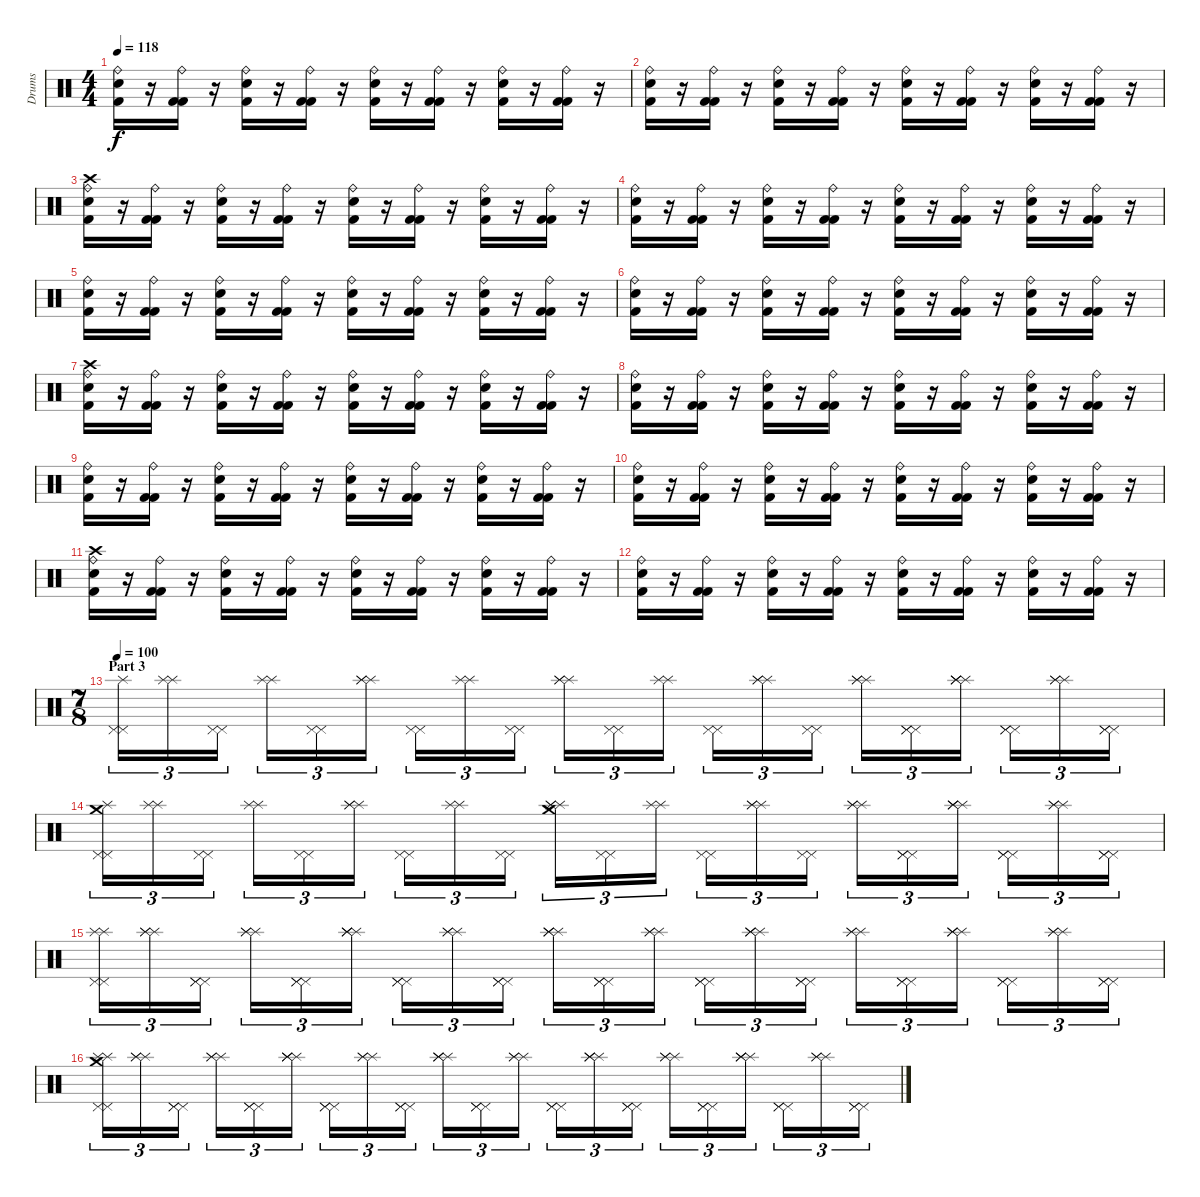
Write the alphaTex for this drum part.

\track ("Drums" "Drums") {instrument percussion}
\staff {score}
\articulation defaults
\ts (4 4)
\tempo 118
\clef neutral
\ks c
("Ride (bell)" "Snare (hit) 2" "Kick (hit) 2").16{dy f} r.16 ("Ride (bell)" "Kick (hit) 2" "Kick (hit) 2").16 r.16 ("Ride (bell)" "Snare (hit) 2" "Kick (hit) 2").16 r.16 ("Ride (bell)" "Kick (hit) 2" "Kick (hit) 2").16 r.16 ("Ride (bell)" "Snare (hit) 2" "Kick (hit) 2").16 r.16 ("Ride (bell)" "Kick (hit) 2" "Kick (hit) 2").16 r.16 ("Ride (bell)" "Snare (hit) 2" "Kick (hit) 2").16 r.16 ("Ride (bell)" "Kick (hit) 2" "Kick (hit) 2").16 r.16 |
("Ride (bell)" "Snare (hit) 2" "Kick (hit) 2").16 r.16 ("Ride (bell)" "Kick (hit) 2" "Kick (hit) 2").16 r.16 ("Ride (bell)" "Snare (hit) 2" "Kick (hit) 2").16 r.16 ("Ride (bell)" "Kick (hit) 2" "Kick (hit) 2").16 r.16 ("Ride (bell)" "Snare (hit) 2" "Kick (hit) 2").16 r.16 ("Ride (bell)" "Kick (hit) 2" "Kick (hit) 2").16 r.16 ("Ride (bell)" "Snare (hit) 2" "Kick (hit) 2").16 r.16 ("Ride (bell)" "Kick (hit) 2" "Kick (hit) 2").16 r.16 |
("Crash high (hit)" "Ride (bell)" "Snare (hit) 2" "Kick (hit) 2").16 r.16 ("Ride (bell)" "Kick (hit) 2" "Kick (hit) 2").16 r.16 ("Ride (bell)" "Snare (hit) 2" "Kick (hit) 2").16 r.16 ("Ride (bell)" "Kick (hit) 2" "Kick (hit) 2").16 r.16 ("Ride (bell)" "Snare (hit) 2" "Kick (hit) 2").16 r.16 ("Ride (bell)" "Kick (hit) 2" "Kick (hit) 2").16 r.16 ("Ride (bell)" "Snare (hit) 2" "Kick (hit) 2").16 r.16 ("Ride (bell)" "Kick (hit) 2" "Kick (hit) 2").16 r.16 |
("Ride (bell)" "Snare (hit) 2" "Kick (hit) 2").16 r.16 ("Ride (bell)" "Kick (hit) 2" "Kick (hit) 2").16 r.16 ("Ride (bell)" "Snare (hit) 2" "Kick (hit) 2").16 r.16 ("Ride (bell)" "Kick (hit) 2" "Kick (hit) 2").16 r.16 ("Ride (bell)" "Snare (hit) 2" "Kick (hit) 2").16 r.16 ("Ride (bell)" "Kick (hit) 2" "Kick (hit) 2").16 r.16 ("Ride (bell)" "Snare (hit) 2" "Kick (hit) 2").16 r.16 ("Ride (bell)" "Kick (hit) 2" "Kick (hit) 2").16 r.16 |
("Ride (bell)" "Snare (hit) 2" "Kick (hit) 2").16 r.16 ("Ride (bell)" "Kick (hit) 2" "Kick (hit) 2").16 r.16 ("Ride (bell)" "Snare (hit) 2" "Kick (hit) 2").16 r.16 ("Ride (bell)" "Kick (hit) 2" "Kick (hit) 2").16 r.16 ("Ride (bell)" "Snare (hit) 2" "Kick (hit) 2").16 r.16 ("Ride (bell)" "Kick (hit) 2" "Kick (hit) 2").16 r.16 ("Ride (bell)" "Snare (hit) 2" "Kick (hit) 2").16 r.16 ("Ride (bell)" "Kick (hit) 2" "Kick (hit) 2").16 r.16 |
("Ride (bell)" "Snare (hit) 2" "Kick (hit) 2").16 r.16 ("Ride (bell)" "Kick (hit) 2" "Kick (hit) 2").16 r.16 ("Ride (bell)" "Snare (hit) 2" "Kick (hit) 2").16 r.16 ("Ride (bell)" "Kick (hit) 2" "Kick (hit) 2").16 r.16 ("Ride (bell)" "Snare (hit) 2" "Kick (hit) 2").16 r.16 ("Ride (bell)" "Kick (hit) 2" "Kick (hit) 2").16 r.16 ("Ride (bell)" "Snare (hit) 2" "Kick (hit) 2").16 r.16 ("Ride (bell)" "Kick (hit) 2" "Kick (hit) 2").16 r.16 |
("Crash high (hit)" "Ride (bell)" "Snare (hit) 2" "Kick (hit) 2").16 r.16 ("Ride (bell)" "Kick (hit) 2" "Kick (hit) 2").16 r.16 ("Ride (bell)" "Snare (hit) 2" "Kick (hit) 2").16 r.16 ("Ride (bell)" "Kick (hit) 2" "Kick (hit) 2").16 r.16 ("Ride (bell)" "Snare (hit) 2" "Kick (hit) 2").16 r.16 ("Ride (bell)" "Kick (hit) 2" "Kick (hit) 2").16 r.16 ("Ride (bell)" "Snare (hit) 2" "Kick (hit) 2").16 r.16 ("Ride (bell)" "Kick (hit) 2" "Kick (hit) 2").16 r.16 |
("Ride (bell)" "Snare (hit) 2" "Kick (hit) 2").16 r.16 ("Ride (bell)" "Kick (hit) 2" "Kick (hit) 2").16 r.16 ("Ride (bell)" "Snare (hit) 2" "Kick (hit) 2").16 r.16 ("Ride (bell)" "Kick (hit) 2" "Kick (hit) 2").16 r.16 ("Ride (bell)" "Snare (hit) 2" "Kick (hit) 2").16 r.16 ("Ride (bell)" "Kick (hit) 2" "Kick (hit) 2").16 r.16 ("Ride (bell)" "Snare (hit) 2" "Kick (hit) 2").16 r.16 ("Ride (bell)" "Kick (hit) 2" "Kick (hit) 2").16 r.16 |
("Ride (bell)" "Snare (hit) 2" "Kick (hit) 2").16 r.16 ("Ride (bell)" "Kick (hit) 2" "Kick (hit) 2").16 r.16 ("Ride (bell)" "Snare (hit) 2" "Kick (hit) 2").16 r.16 ("Ride (bell)" "Kick (hit) 2" "Kick (hit) 2").16 r.16 ("Ride (bell)" "Snare (hit) 2" "Kick (hit) 2").16 r.16 ("Ride (bell)" "Kick (hit) 2" "Kick (hit) 2").16 r.16 ("Ride (bell)" "Snare (hit) 2" "Kick (hit) 2").16 r.16 ("Ride (bell)" "Kick (hit) 2" "Kick (hit) 2").16 r.16 |
("Ride (bell)" "Snare (hit) 2" "Kick (hit) 2").16 r.16 ("Ride (bell)" "Kick (hit) 2" "Kick (hit) 2").16 r.16 ("Ride (bell)" "Snare (hit) 2" "Kick (hit) 2").16 r.16 ("Ride (bell)" "Kick (hit) 2" "Kick (hit) 2").16 r.16 ("Ride (bell)" "Snare (hit) 2" "Kick (hit) 2").16 r.16 ("Ride (bell)" "Kick (hit) 2" "Kick (hit) 2").16 r.16 ("Ride (bell)" "Snare (hit) 2" "Kick (hit) 2").16 r.16 ("Ride (bell)" "Kick (hit) 2" "Kick (hit) 2").16 r.16 |
("Crash high (hit)" "Ride (bell)" "Snare (hit) 2" "Kick (hit) 2").16 r.16 ("Ride (bell)" "Kick (hit) 2" "Kick (hit) 2").16 r.16 ("Ride (bell)" "Snare (hit) 2" "Kick (hit) 2").16 r.16 ("Ride (bell)" "Kick (hit) 2" "Kick (hit) 2").16 r.16 ("Ride (bell)" "Snare (hit) 2" "Kick (hit) 2").16 r.16 ("Ride (bell)" "Kick (hit) 2" "Kick (hit) 2").16 r.16 ("Ride (bell)" "Snare (hit) 2" "Kick (hit) 2").16 r.16 ("Ride (bell)" "Kick (hit) 2" "Kick (hit) 2").16 r.16 |
("Ride (bell)" "Snare (hit) 2" "Kick (hit) 2").16 r.16 ("Ride (bell)" "Kick (hit) 2" "Kick (hit) 2").16 r.16 ("Ride (bell)" "Snare (hit) 2" "Kick (hit) 2").16 r.16 ("Ride (bell)" "Kick (hit) 2" "Kick (hit) 2").16 r.16 ("Ride (bell)" "Snare (hit) 2" "Kick (hit) 2").16 r.16 ("Ride (bell)" "Kick (hit) 2" "Kick (hit) 2").16 r.16 ("Ride (bell)" "Snare (hit) 2" "Kick (hit) 2").16 r.16 ("Ride (bell)" "Kick (hit) 2" "Kick (hit) 2").16 r.16 |
\ts (7 8)
\section ("" "Part 3")
\tempo 100
("Pedal Hi-Hat (hit)" "Pedal Hi-Hat (hit)" "Splash (hit)").16{tu (3 2)} ("Splash (hit)" "Splash (hit)").16{tu (3 2)} ("Pedal Hi-Hat (hit)" "Pedal Hi-Hat (hit)").16{tu (3 2)} ("Splash (hit)" "Splash (hit)").16{tu (3 2)} ("Pedal Hi-Hat (hit)" "Pedal Hi-Hat (hit)").16{tu (3 2)} ("Splash (hit)" "Splash (hit)" "Splash (hit)").16{tu (3 2)} ("Pedal Hi-Hat (hit)" "Pedal Hi-Hat (hit)").16{tu (3 2)} ("Splash (hit)" "Splash (hit)").16{tu (3 2)} ("Pedal Hi-Hat (hit)" "Pedal Hi-Hat (hit)").16{tu (3 2)} ("Splash (hit)" "Splash (hit)" "Splash (hit)").16{tu (3 2)} ("Pedal Hi-Hat (hit)" "Pedal Hi-Hat (hit)").16{tu (3 2)} ("Splash (hit)" "Splash (hit)").16{tu (3 2)} ("Pedal Hi-Hat (hit)" "Pedal Hi-Hat (hit)").16{tu (3 2)} ("Splash (hit)" "Splash (hit)" "Splash (hit)").16{tu (3 2)} ("Pedal Hi-Hat (hit)" "Pedal Hi-Hat (hit)").16{tu (3 2)} ("Splash (hit)" "Splash (hit)" "Splash (hit)").16{tu (3 2)} ("Pedal Hi-Hat (hit)" "Pedal Hi-Hat (hit)" "Pedal Hi-Hat (hit)").16{tu (3 2)} ("Splash (hit)" "Splash (hit)" "Splash (hit)" "Splash (hit)").16{tu (3 2)} ("Pedal Hi-Hat (hit)" "Pedal Hi-Hat (hit)" "Pedal Hi-Hat (hit)").16{tu (3 2)} ("Splash (hit)" "Splash (hit)" "Splash (hit)").16{tu (3 2)} ("Pedal Hi-Hat (hit)" "Pedal Hi-Hat (hit)" "Pedal Hi-Hat (hit)").16{tu (3 2)} |
("Pedal Hi-Hat (hit)" "Pedal Hi-Hat (hit)" "Splash (hit)" "Crash medium (hit)").16{tu (3 2)} ("Splash (hit)" "Splash (hit)").16{tu (3 2)} ("Pedal Hi-Hat (hit)" "Pedal Hi-Hat (hit)").16{tu (3 2)} ("Splash (hit)" "Splash (hit)").16{tu (3 2)} ("Pedal Hi-Hat (hit)" "Pedal Hi-Hat (hit)").16{tu (3 2)} ("Splash (hit)" "Splash (hit)" "Splash (hit)").16{tu (3 2)} ("Pedal Hi-Hat (hit)" "Pedal Hi-Hat (hit)").16{tu (3 2)} ("Splash (hit)" "Splash (hit)").16{tu (3 2)} ("Pedal Hi-Hat (hit)" "Pedal Hi-Hat (hit)").16{tu (3 2)} ("Splash (hit)" "Splash (hit)" "Splash (hit)" "Crash medium (hit)").16{tu (3 2)} ("Pedal Hi-Hat (hit)" "Pedal Hi-Hat (hit)").16{tu (3 2)} ("Splash (hit)" "Splash (hit)").16{tu (3 2)} ("Pedal Hi-Hat (hit)" "Pedal Hi-Hat (hit)").16{tu (3 2)} ("Splash (hit)" "Splash (hit)" "Splash (hit)").16{tu (3 2)} ("Pedal Hi-Hat (hit)" "Pedal Hi-Hat (hit)").16{tu (3 2)} ("Splash (hit)" "Splash (hit)" "Splash (hit)").16{tu (3 2)} ("Pedal Hi-Hat (hit)" "Pedal Hi-Hat (hit)" "Pedal Hi-Hat (hit)").16{tu (3 2)} ("Splash (hit)" "Splash (hit)" "Splash (hit)" "Splash (hit)").16{tu (3 2)} ("Pedal Hi-Hat (hit)" "Pedal Hi-Hat (hit)" "Pedal Hi-Hat (hit)").16{tu (3 2)} ("Splash (hit)" "Splash (hit)" "Splash (hit)").16{tu (3 2)} ("Pedal Hi-Hat (hit)" "Pedal Hi-Hat (hit)" "Pedal Hi-Hat (hit)").16{tu (3 2)} |
("Pedal Hi-Hat (hit)" "Pedal Hi-Hat (hit)" "Splash (hit)" "Splash (hit)").16{tu (3 2)} ("Splash (hit)" "Splash (hit)" "Splash (hit)").16{tu (3 2)} ("Pedal Hi-Hat (hit)" "Pedal Hi-Hat (hit)" "Pedal Hi-Hat (hit)").16{tu (3 2)} ("Splash (hit)" "Splash (hit)" "Splash (hit)").16{tu (3 2)} ("Pedal Hi-Hat (hit)" "Pedal Hi-Hat (hit)" "Pedal Hi-Hat (hit)").16{tu (3 2)} ("Splash (hit)" "Splash (hit)" "Splash (hit)" "Splash (hit)").16{tu (3 2)} ("Pedal Hi-Hat (hit)" "Pedal Hi-Hat (hit)" "Pedal Hi-Hat (hit)").16{tu (3 2)} ("Splash (hit)" "Splash (hit)" "Splash (hit)").16{tu (3 2)} ("Pedal Hi-Hat (hit)" "Pedal Hi-Hat (hit)" "Pedal Hi-Hat (hit)").16{tu (3 2)} ("Splash (hit)" "Splash (hit)" "Splash (hit)" "Splash (hit)").16{tu (3 2)} ("Pedal Hi-Hat (hit)" "Pedal Hi-Hat (hit)" "Pedal Hi-Hat (hit)").16{tu (3 2)} ("Splash (hit)" "Splash (hit)" "Splash (hit)").16{tu (3 2)} ("Pedal Hi-Hat (hit)" "Pedal Hi-Hat (hit)" "Pedal Hi-Hat (hit)").16{tu (3 2)} ("Splash (hit)" "Splash (hit)" "Splash (hit)" "Splash (hit)").16{tu (3 2)} ("Pedal Hi-Hat (hit)" "Pedal Hi-Hat (hit)" "Pedal Hi-Hat (hit)").16{tu (3 2)} ("Splash (hit)" "Splash (hit)" "Splash (hit)").16{tu (3 2)} ("Pedal Hi-Hat (hit)" "Pedal Hi-Hat (hit)" "Pedal Hi-Hat (hit)").16{tu (3 2)} ("Splash (hit)" "Splash (hit)" "Splash (hit)" "Splash (hit)").16{tu (3 2)} ("Pedal Hi-Hat (hit)" "Pedal Hi-Hat (hit)" "Pedal Hi-Hat (hit)").16{tu (3 2)} ("Splash (hit)" "Splash (hit)" "Splash (hit)").16{tu (3 2)} ("Pedal Hi-Hat (hit)" "Pedal Hi-Hat (hit)" "Pedal Hi-Hat (hit)").16{tu (3 2)} |
("Pedal Hi-Hat (hit)" "Pedal Hi-Hat (hit)" "Splash (hit)" "Splash (hit)" "Crash medium (hit)").16{tu (3 2)} ("Splash (hit)" "Splash (hit)" "Splash (hit)").16{tu (3 2)} ("Pedal Hi-Hat (hit)" "Pedal Hi-Hat (hit)" "Pedal Hi-Hat (hit)").16{tu (3 2)} ("Splash (hit)" "Splash (hit)" "Splash (hit)").16{tu (3 2)} ("Pedal Hi-Hat (hit)" "Pedal Hi-Hat (hit)" "Pedal Hi-Hat (hit)").16{tu (3 2)} ("Splash (hit)" "Splash (hit)" "Splash (hit)" "Splash (hit)").16{tu (3 2)} ("Pedal Hi-Hat (hit)" "Pedal Hi-Hat (hit)" "Pedal Hi-Hat (hit)").16{tu (3 2)} ("Splash (hit)" "Splash (hit)" "Splash (hit)").16{tu (3 2)} ("Pedal Hi-Hat (hit)" "Pedal Hi-Hat (hit)" "Pedal Hi-Hat (hit)").16{tu (3 2)} ("Splash (hit)" "Splash (hit)" "Splash (hit)" "Splash (hit)").16{tu (3 2)} ("Pedal Hi-Hat (hit)" "Pedal Hi-Hat (hit)" "Pedal Hi-Hat (hit)").16{tu (3 2)} ("Splash (hit)" "Splash (hit)" "Splash (hit)").16{tu (3 2)} ("Pedal Hi-Hat (hit)" "Pedal Hi-Hat (hit)" "Pedal Hi-Hat (hit)").16{tu (3 2)} ("Splash (hit)" "Splash (hit)" "Splash (hit)" "Splash (hit)").16{tu (3 2)} ("Pedal Hi-Hat (hit)" "Pedal Hi-Hat (hit)" "Pedal Hi-Hat (hit)").16{tu (3 2)} ("Splash (hit)" "Splash (hit)" "Splash (hit)").16{tu (3 2)} ("Pedal Hi-Hat (hit)" "Pedal Hi-Hat (hit)" "Pedal Hi-Hat (hit)").16{tu (3 2)} ("Splash (hit)" "Splash (hit)" "Splash (hit)" "Splash (hit)").16{tu (3 2)} ("Pedal Hi-Hat (hit)" "Pedal Hi-Hat (hit)" "Pedal Hi-Hat (hit)").16{tu (3 2)} ("Splash (hit)" "Splash (hit)" "Splash (hit)").16{tu (3 2)} ("Pedal Hi-Hat (hit)" "Pedal Hi-Hat (hit)" "Pedal Hi-Hat (hit)").16{tu (3 2)}
